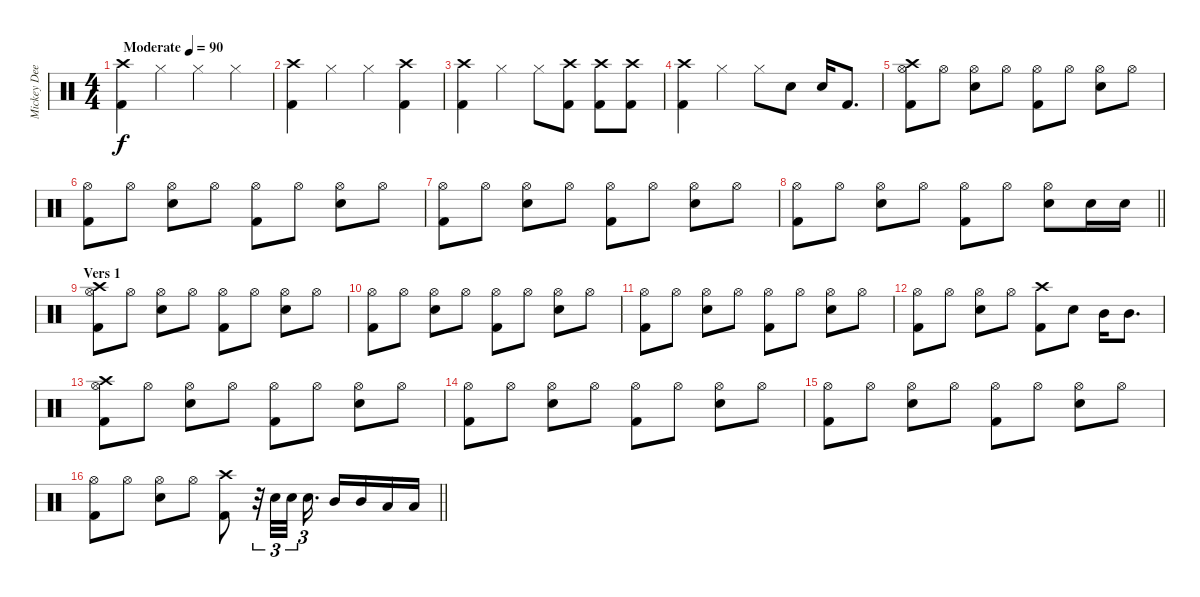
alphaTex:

\track ("Mickey Dee" "Mickey Dee") {instrument percussion}
\staff {score}
\articulation defaults
\ts (4 4)
\tempo (90 "Moderate")
\clef neutral
\ks c
("Crash high (hit)" "Kick (hit) 2").4{dy f} "Hi-Hat (closed)".4 "Hi-Hat (closed)".4 "Hi-Hat (closed)".4 |
("Crash high (hit)" "Kick (hit) 2").4 "Hi-Hat (closed)".4 "Hi-Hat (closed)".4 ("Crash high (hit)" "Kick (hit) 2").4 |
("Crash high (hit)" "Kick (hit) 2").4 "Hi-Hat (closed)".4 "Hi-Hat (closed)".8 ("Crash high (hit)" "Kick (hit) 2").8 ("Crash high (hit)" "Kick (hit) 2").8 ("Crash high (hit)" "Kick (hit) 2").8 |
("Crash high (hit)" "Kick (hit) 2").4 "Hi-Hat (closed)".4 "Hi-Hat (closed)".8 "Snare (hit) 2".8 "Snare (hit) 2".16 "Kick (hit) 2".8{d} |
("Crash high (hit)" "Hi-Hat (open)" "Kick (hit) 2").8 "Hi-Hat (open)".8 ("Hi-Hat (open)" "Snare (hit) 2").8 "Hi-Hat (open)".8 ("Hi-Hat (open)" "Kick (hit) 2").8 "Hi-Hat (open)".8 ("Hi-Hat (open)" "Snare (hit) 2").8 "Hi-Hat (open)".8 |
("Hi-Hat (open)" "Kick (hit) 2").8 "Hi-Hat (open)".8 ("Hi-Hat (open)" "Snare (hit) 2").8 "Hi-Hat (open)".8 ("Hi-Hat (open)" "Kick (hit) 2").8 "Hi-Hat (open)".8 ("Hi-Hat (open)" "Snare (hit) 2").8 "Hi-Hat (open)".8 |
("Hi-Hat (open)" "Kick (hit) 2").8 "Hi-Hat (open)".8 ("Hi-Hat (open)" "Snare (hit) 2").8 "Hi-Hat (open)".8 ("Hi-Hat (open)" "Kick (hit) 2").8 "Hi-Hat (open)".8 ("Hi-Hat (open)" "Snare (hit) 2").8 "Hi-Hat (open)".8 |
\barLineRight lightlight
("Hi-Hat (open)" "Kick (hit) 2").8 "Hi-Hat (open)".8 ("Hi-Hat (open)" "Snare (hit) 2").8 "Hi-Hat (open)".8 ("Hi-Hat (open)" "Kick (hit) 2").8 "Hi-Hat (open)".8 ("Hi-Hat (open)" "Snare (hit) 2").8 "Snare (hit) 2".16 "Snare (hit) 2".16 |
\section ("" "Vers 1")
("Crash high (hit)" "Hi-Hat (open)" "Kick (hit) 2").8 "Hi-Hat (open)".8 ("Hi-Hat (open)" "Snare (hit) 2").8 "Hi-Hat (open)".8 ("Hi-Hat (open)" "Kick (hit) 2").8 "Hi-Hat (open)".8 ("Hi-Hat (open)" "Snare (hit) 2").8 "Hi-Hat (open)".8 |
("Hi-Hat (open)" "Kick (hit) 2").8 "Hi-Hat (open)".8 ("Hi-Hat (open)" "Snare (hit) 2").8 "Hi-Hat (open)".8 ("Hi-Hat (open)" "Kick (hit) 2").8 "Hi-Hat (open)".8 ("Hi-Hat (open)" "Snare (hit) 2").8 "Hi-Hat (open)".8 |
("Hi-Hat (open)" "Kick (hit) 2").8 "Hi-Hat (open)".8 ("Hi-Hat (open)" "Snare (hit) 2").8 "Hi-Hat (open)".8 ("Hi-Hat (open)" "Kick (hit) 2").8 "Hi-Hat (open)".8 ("Hi-Hat (open)" "Snare (hit) 2").8 "Hi-Hat (open)".8 |
("Hi-Hat (open)" "Kick (hit) 2").8 "Hi-Hat (open)".8 ("Hi-Hat (open)" "Snare (hit) 2").8 "Hi-Hat (open)".8 ("Crash high (hit)" "Kick (hit) 2").8 "Snare (hit) 2".8 "Mid Tom (hit)".16 "Mid Tom (hit)".8{d} |
("Crash high (hit)" "Hi-Hat (open)" "Kick (hit) 2").8 "Hi-Hat (open)".8 ("Hi-Hat (open)" "Snare (hit) 2").8 "Hi-Hat (open)".8 ("Hi-Hat (open)" "Kick (hit) 2").8 "Hi-Hat (open)".8 ("Hi-Hat (open)" "Snare (hit) 2").8 "Hi-Hat (open)".8 |
("Hi-Hat (open)" "Kick (hit) 2").8 "Hi-Hat (open)".8 ("Hi-Hat (open)" "Snare (hit) 2").8 "Hi-Hat (open)".8 ("Hi-Hat (open)" "Kick (hit) 2").8 "Hi-Hat (open)".8 ("Hi-Hat (open)" "Snare (hit) 2").8 "Hi-Hat (open)".8 |
("Hi-Hat (open)" "Kick (hit) 2").8 "Hi-Hat (open)".8 ("Hi-Hat (open)" "Snare (hit) 2").8 "Hi-Hat (open)".8 ("Hi-Hat (open)" "Kick (hit) 2").8 "Hi-Hat (open)".8 ("Hi-Hat (open)" "Snare (hit) 2").8 "Hi-Hat (open)".8 |
\barLineRight lightlight
("Hi-Hat (open)" "Kick (hit) 2").8 "Hi-Hat (open)".8 ("Hi-Hat (open)" "Snare (hit) 2").8 "Hi-Hat (open)".8 ("Crash high (hit)" "Kick (hit) 2").8 r.32{tu (3 2)} "Snare (hit) 2".32{tu (3 2)} "Snare (hit) 2".32{tu (3 2) beam splitsecondary} "Snare (hit) 2".16{d tu (3 2)} "Mid Tom (hit)".16 "Mid Tom (hit)".16 "Low Tom (hit)".16 "Low Tom (hit)".16
